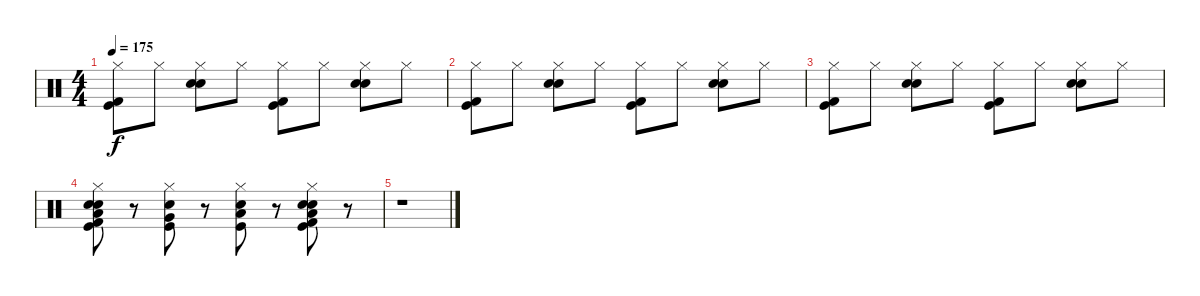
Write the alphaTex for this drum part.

\track "" {instrument percussion}
\staff {score}
\articulation defaults
\ts (4 4)
\tempo 175
\clef neutral
\ks c
("Hi-Hat (closed)" "Kick (hit)" "Kick (hit) 2").8{dy f} "Hi-Hat (closed)".8 ("Electric Snare (hit)" "Snare (hit) 2" "Hi-Hat (closed)").8 "Hi-Hat (closed)".8 ("Hi-Hat (closed)" "Kick (hit)" "Kick (hit) 2").8 "Hi-Hat (closed)".8 ("Electric Snare (hit)" "Snare (hit) 2" "Hi-Hat (closed)").8 "Hi-Hat (closed)".8 |
("Hi-Hat (closed)" "Kick (hit)" "Kick (hit) 2").8 "Hi-Hat (closed)".8 ("Electric Snare (hit)" "Snare (hit) 2" "Hi-Hat (closed)").8 "Hi-Hat (closed)".8 ("Hi-Hat (closed)" "Kick (hit)" "Kick (hit) 2").8 "Hi-Hat (closed)".8 ("Electric Snare (hit)" "Snare (hit) 2" "Hi-Hat (closed)").8 "Hi-Hat (closed)".8 |
("Hi-Hat (closed)" "Kick (hit)" "Kick (hit) 2").8 "Hi-Hat (closed)".8 ("Electric Snare (hit)" "Snare (hit) 2" "Hi-Hat (closed)").8 "Hi-Hat (closed)".8 ("Hi-Hat (closed)" "Kick (hit)" "Kick (hit) 2").8 "Hi-Hat (closed)".8 ("Electric Snare (hit)" "Snare (hit) 2" "Hi-Hat (closed)").8 "Hi-Hat (closed)".8 |
("Hi-Hat (closed)" "Kick (hit)" "Kick (hit) 2" "Low Tom (hit)" "Electric Snare (hit)" "Snare (hit) 2").8 r.8 ("Very Low Tom (hit)" "Kick (hit)" "Electric Snare (hit)" "Hi-Hat (closed)").8 r.8 ("Low Floor Tom (hit)" "Kick (hit)" "Snare (hit) 2" "Hi-Hat (closed)").8 r.8 ("Electric Snare (hit)" "Low Floor Tom (hit)" "Kick (hit)" "Kick (hit) 2" "Snare (hit) 2" "Hi-Hat (closed)").8 r.8 |
r.1
